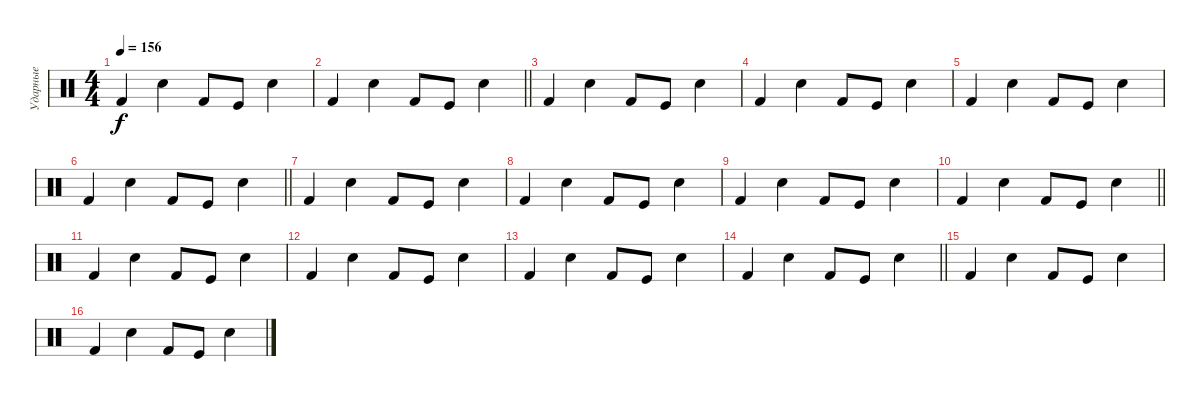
\track ("Ударные" "Ударные") {instrument percussion}
\staff {score}
\articulation defaults
\ts (4 4)
\tempo 156
\clef neutral
\ks c "Kick (hit) 2".4{dy f} "Snare (hit) 2".4 "Kick (hit) 2".8 "Kick (hit)".8 "Snare (hit) 2".4
|
\barLineRight lightlight "Kick (hit) 2".4 "Snare (hit) 2".4 "Kick (hit) 2".8 "Kick (hit)".8 "Snare (hit) 2".4
|
"Kick (hit) 2".4 "Snare (hit) 2".4 "Kick (hit) 2".8 "Kick (hit)".8 "Snare (hit) 2".4 |
"Kick (hit) 2".4 "Snare (hit) 2".4 "Kick (hit) 2".8 "Kick (hit)".8 "Snare (hit) 2".4 |
"Kick (hit) 2".4 "Snare (hit) 2".4 "Kick (hit) 2".8 "Kick (hit)".8 "Snare (hit) 2".4 |
\barLineRight lightlight "Kick (hit) 2".4 "Snare (hit) 2".4 "Kick (hit) 2".8 "Kick (hit)".8 "Snare (hit) 2".4
|
"Kick (hit) 2".4 "Snare (hit) 2".4 "Kick (hit) 2".8 "Kick (hit)".8 "Snare (hit) 2".4 |
"Kick (hit) 2".4 "Snare (hit) 2".4 "Kick (hit) 2".8 "Kick (hit)".8 "Snare (hit) 2".4 |
"Kick (hit) 2".4 "Snare (hit) 2".4 "Kick (hit) 2".8 "Kick (hit)".8 "Snare (hit) 2".4 |
\barLineRight lightlight "Kick (hit) 2".4 "Snare (hit) 2".4 "Kick (hit) 2".8 "Kick (hit)".8 "Snare (hit) 2".4
|
"Kick (hit) 2".4 "Snare (hit) 2".4 "Kick (hit) 2".8 "Kick (hit)".8 "Snare (hit) 2".4 |
"Kick (hit) 2".4 "Snare (hit) 2".4 "Kick (hit) 2".8 "Kick (hit)".8 "Snare (hit) 2".4 |
"Kick (hit) 2".4 "Snare (hit) 2".4 "Kick (hit) 2".8 "Kick (hit)".8 "Snare (hit) 2".4 |
\barLineRight lightlight "Kick (hit) 2".4 "Snare (hit) 2".4 "Kick (hit) 2".8 "Kick (hit)".8 "Snare (hit) 2".4
|
"Kick (hit) 2".4 "Snare (hit) 2".4 "Kick (hit) 2".8 "Kick (hit)".8 "Snare (hit) 2".4 |
"Kick (hit) 2".4 "Snare (hit) 2".4 "Kick (hit) 2".8 "Kick (hit)".8 "Snare (hit) 2".4
